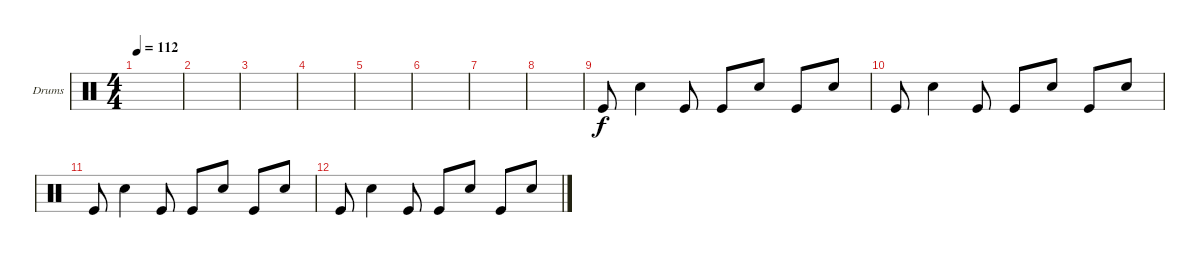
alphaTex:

\defaultSystemsLayout 4
\bracketExtendMode groupsimilarinstruments
\firstSystemTrackNameOrientation horizontal
\otherSystemsTrackNameOrientation horizontal
\track ("Drumkit" "Drums") {instrument percussion}
\staff {score}
\articulation defaults
\ts (4 4)
\tempo 112
\clef neutral
\ks c
|
|
|
|
|
|
|
|
"Kick (hit)".8 "Snare (hit) 2".4 "Kick (hit)".8 "Kick (hit)".8 "Snare (hit) 2".8 "Kick (hit)".8 "Snare (hit) 2".8 |
"Kick (hit)".8 "Snare (hit) 2".4 "Kick (hit)".8 "Kick (hit)".8 "Snare (hit) 2".8 "Kick (hit)".8 "Snare (hit) 2".8 |
"Kick (hit)".8 "Snare (hit) 2".4 "Kick (hit)".8 "Kick (hit)".8 "Snare (hit) 2".8 "Kick (hit)".8 "Snare (hit) 2".8 |
"Kick (hit)".8 "Snare (hit) 2".4 "Kick (hit)".8 "Kick (hit)".8 "Snare (hit) 2".8 "Kick (hit)".8 "Snare (hit) 2".8
